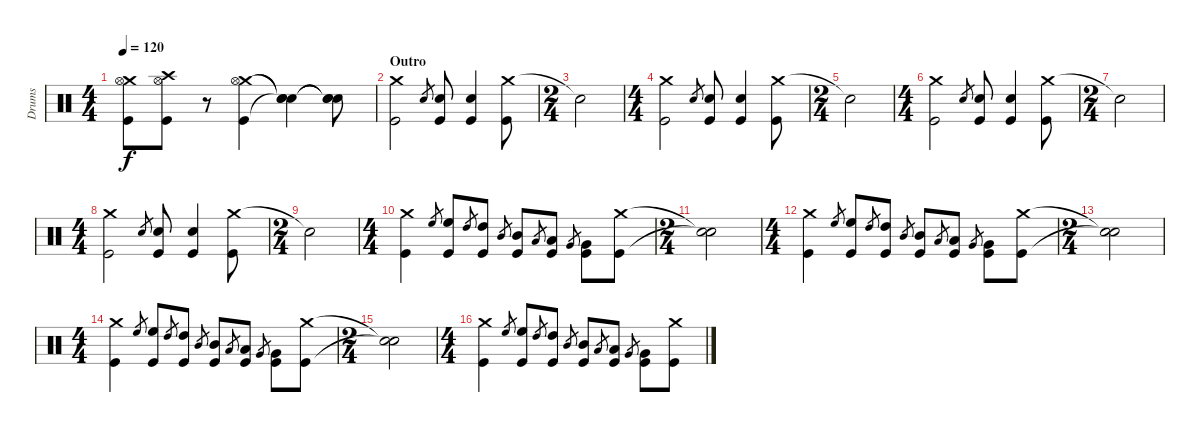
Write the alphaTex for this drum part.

\track ("Drums" "Drums") {instrument percussion}
\staff {score}
\articulation defaults
\ts (4 4)
\tempo 120
\clef neutral
\ks c
("Crash medium (hit)" "Hi-Hat (open)" "Kick (hit)").8{dy f} ("Crash high (hit)" "Hi-Hat (open)" "Kick (hit)").8 r.8 ("Crash medium (hit)" "Hi-Hat (open)" "Kick (hit)").4 ("Snare (hit)"{t} "Snare (hit)"{t} "Snare (hit)"{t}).4 ("Snare (hit)"{t} "Snare (hit)"{t} "Snare (hit)"{t}).8 |
\section ("" "Outro")
("Crash medium (hit)" "Kick (hit)").2 "Snare (hit) 2".8{gr} ("Snare (hit) 2" "Kick (hit)").8 ("Snare (hit) 2" "Kick (hit)").4 ("Crash medium (hit)" "Kick (hit)").8 |
\ts (2 4)
"Snare (hit)"{t}.2 |
\ts (4 4)
("Crash medium (hit)" "Kick (hit)").2 "Snare (hit) 2".8{gr} ("Snare (hit) 2" "Kick (hit)").8 ("Snare (hit) 2" "Kick (hit)").4 ("Crash medium (hit)" "Kick (hit)").8 |
\ts (2 4)
"Snare (hit)"{t}.2 |
\ts (4 4)
("Crash medium (hit)" "Kick (hit)").2 "Snare (hit) 2".8{gr} ("Snare (hit) 2" "Kick (hit)").8 ("Snare (hit) 2" "Kick (hit)").4 ("Crash medium (hit)" "Kick (hit)").8 |
\ts (2 4)
"Snare (hit)"{t}.2 |
\ts (4 4)
("Crash medium (hit)" "Kick (hit)").2 "Snare (hit) 2".8{gr} ("Snare (hit) 2" "Kick (hit)").8 ("Snare (hit) 2" "Kick (hit)").4 ("Crash medium (hit)" "Kick (hit)").8 |
\ts (2 4)
"Snare (hit)"{t}.2 |
\ts (4 4)
("Crash medium (hit)" "Kick (hit)").4 "High Floor Tom (hit)".8{gr} ("High Floor Tom (hit)" "Kick (hit)").8 "High Tom (hit)".8{gr} ("High Tom (hit)" "Kick (hit)").8 "Mid Tom (hit)".8{gr} ("Mid Tom (hit)" "Kick (hit)").8 "Low Tom (hit)".8{gr} ("Low Tom (hit)" "Kick (hit)").8 "Very Low Tom (hit)".8{gr} ("Very Low Tom (hit)" "Kick (hit)").8 ("Crash medium (hit)" "Kick (hit)").8 |
\ts (2 4)
("Snare (hit)"{t} "Snare (hit)"{t}).2 |
\ts (4 4)
("Crash medium (hit)" "Kick (hit)").4 "High Floor Tom (hit)".8{gr} ("High Floor Tom (hit)" "Kick (hit)").8 "High Tom (hit)".8{gr} ("High Tom (hit)" "Kick (hit)").8 "Mid Tom (hit)".8{gr} ("Mid Tom (hit)" "Kick (hit)").8 "Low Tom (hit)".8{gr} ("Low Tom (hit)" "Kick (hit)").8 "Very Low Tom (hit)".8{gr} ("Very Low Tom (hit)" "Kick (hit)").8 ("Crash medium (hit)" "Kick (hit)").8 |
\ts (2 4)
("Snare (hit)"{t} "Snare (hit)"{t}).2 |
\ts (4 4)
("Crash medium (hit)" "Kick (hit)").4 "High Floor Tom (hit)".8{gr} ("High Floor Tom (hit)" "Kick (hit)").8 "High Tom (hit)".8{gr} ("High Tom (hit)" "Kick (hit)").8 "Mid Tom (hit)".8{gr} ("Mid Tom (hit)" "Kick (hit)").8 "Low Tom (hit)".8{gr} ("Low Tom (hit)" "Kick (hit)").8 "Very Low Tom (hit)".8{gr} ("Very Low Tom (hit)" "Kick (hit)").8 ("Crash medium (hit)" "Kick (hit)").8 |
\ts (2 4)
("Snare (hit)"{t} "Snare (hit)"{t}).2 |
\ts (4 4)
("Crash medium (hit)" "Kick (hit)").4 "High Floor Tom (hit)".8{gr} ("High Floor Tom (hit)" "Kick (hit)").8 "High Tom (hit)".8{gr} ("High Tom (hit)" "Kick (hit)").8 "Mid Tom (hit)".8{gr} ("Mid Tom (hit)" "Kick (hit)").8 "Low Tom (hit)".8{gr} ("Low Tom (hit)" "Kick (hit)").8 "Very Low Tom (hit)".8{gr} ("Very Low Tom (hit)" "Kick (hit)").8 ("Crash medium (hit)" "Kick (hit)").8
